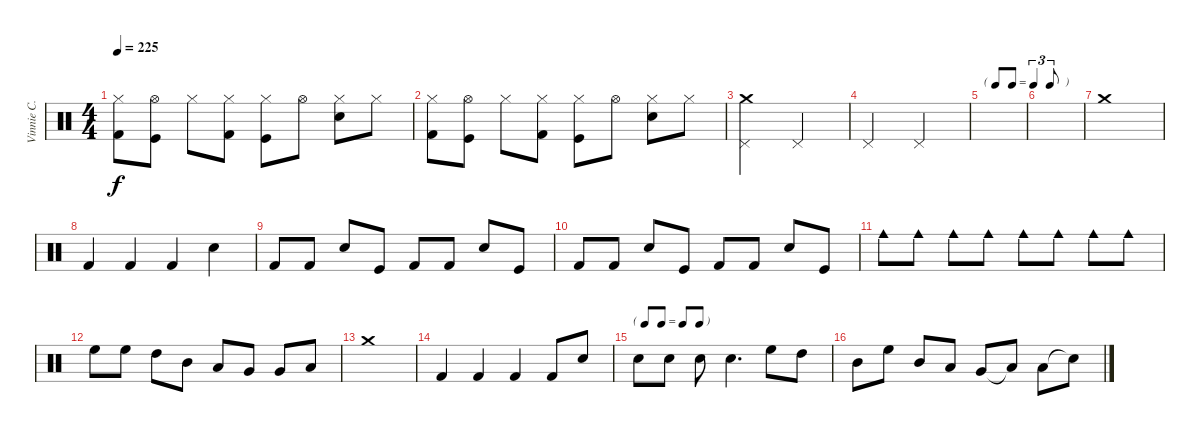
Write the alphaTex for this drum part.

\track ("Vinnie C." "Vinnie C.") {instrument percussion}
\staff {score}
\articulation defaults
\ts (4 4)
\tempo 225
\clef neutral
\ks c
("Hi-Hat (closed)" "Kick (hit) 2").8{dy f} ("Hi-Hat (open)" "Kick (hit)").8 "Hi-Hat (closed)".8 ("Hi-Hat (closed)" "Kick (hit) 2").8 ("Hi-Hat (closed)" "Kick (hit)").8 "Hi-Hat (open)".8 ("Hi-Hat (closed)" "Electric Snare (hit)").8 "Hi-Hat (closed)".8 |
("Hi-Hat (closed)" "Kick (hit) 2").8 ("Hi-Hat (open)" "Kick (hit)").8 "Hi-Hat (closed)".8 ("Hi-Hat (closed)" "Kick (hit) 2").8 ("Hi-Hat (closed)" "Kick (hit)").8 "Hi-Hat (open)".8 ("Hi-Hat (closed)" "Electric Snare (hit)").8 "Hi-Hat (closed)".8 |
("Crash medium (hit)" "Pedal Hi-Hat (hit)").2 "Pedal Hi-Hat (hit)".2 |
"Pedal Hi-Hat (hit)".2 "Pedal Hi-Hat (hit)".2 |
\tf triplet8th
|
|
"Crash medium (hit)".1 |
"Kick (hit) 2".4 "Kick (hit) 2".4 "Kick (hit) 2".4 "Electric Snare (hit)".4 |
"Kick (hit) 2".8 "Kick (hit) 2".8 "Electric Snare (hit)".8 "Kick (hit)".8 "Kick (hit) 2".8 "Kick (hit) 2".8 "Electric Snare (hit)".8 "Kick (hit)".8 |
"Kick (hit) 2".8 "Kick (hit) 2".8 "Electric Snare (hit)".8 "Kick (hit)".8 "Kick (hit) 2".8 "Kick (hit) 2".8 "Electric Snare (hit)".8 "Kick (hit)".8 |
"Cowbell medium (hit)".8 "Cowbell medium (hit)".8 "Cowbell medium (hit)".8 "Cowbell medium (hit)".8 "Cowbell medium (hit)".8 "Cowbell medium (hit)".8 "Cowbell medium (hit)".8 "Cowbell medium (hit)".8 |
"High Floor Tom (hit)".8 "High Floor Tom (hit)".8 "High Tom (hit)".8 "Mid Tom (hit)".8 "Low Tom (hit)".8 "Very Low Tom (hit)".8 "Very Low Tom (hit)".8 "Low Floor Tom (hit)".8 |
"Crash medium (hit)".1 |
"Kick (hit) 2".4 "Kick (hit) 2".4 "Kick (hit) 2".4 "Kick (hit) 2".8 "Electric Snare (hit)".8 |
\tf none "Electric Snare (hit)".8 "Electric Snare (hit)".8 "Electric Snare (hit)".8 "Electric Snare (hit)".4{d} "High Floor Tom (hit)".8 "High Tom (hit)".8
|
"Mid Tom (hit)".8 "High Floor Tom (hit)".8 "Mid Tom (hit)".8 "Low Tom (hit)".8 "Very Low Tom (hit)".8 "Low Floor Tom (hit)"{t}.8 "Low Floor Tom (hit)".8 "Snare (hit)"{t}.8
